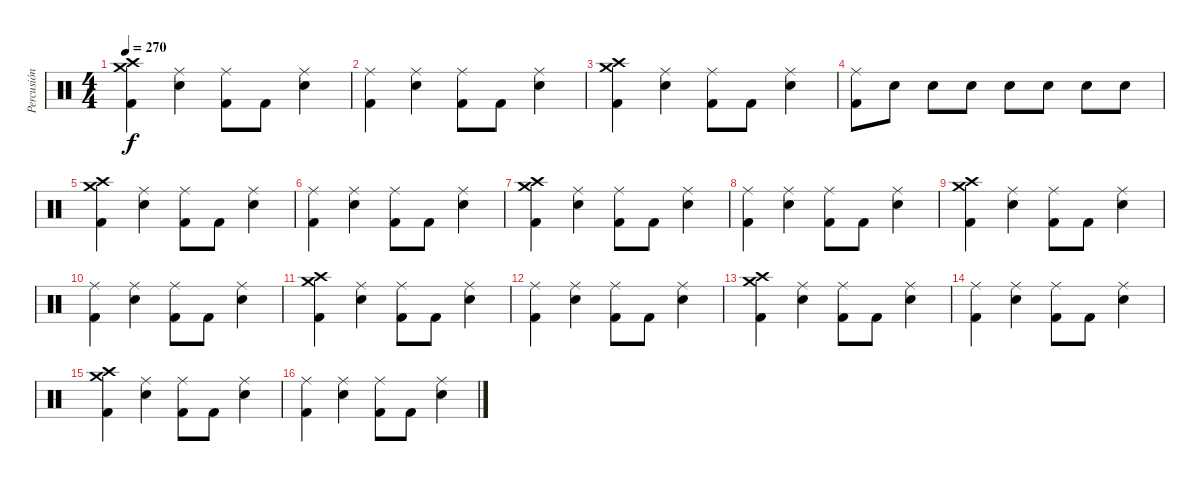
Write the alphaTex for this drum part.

\track ("Percusión" "Percusión") {instrument percussion}
\staff {score}
\articulation defaults
\ts (4 4)
\tempo 270
\clef neutral
\ks c
("Crash high (hit)" "Crash medium (hit)" "Kick (hit) 2").4{dy f} ("Ride (middle)" "Electric Snare (hit)").4 ("Ride (middle)" "Kick (hit) 2").8 "Kick (hit) 2".8 ("Ride (middle)" "Electric Snare (hit)").4 |
("Ride (middle)" "Kick (hit) 2").4 ("Ride (middle)" "Electric Snare (hit)").4 ("Ride (middle)" "Kick (hit) 2").8 "Kick (hit) 2".8 ("Ride (middle)" "Electric Snare (hit)").4 |
("Crash high (hit)" "Crash medium (hit)" "Kick (hit) 2").4 ("Ride (middle)" "Electric Snare (hit)").4 ("Ride (middle)" "Kick (hit) 2").8 "Kick (hit) 2".8 ("Ride (middle)" "Electric Snare (hit)").4 |
("Ride (middle)" "Kick (hit) 2").8 "Electric Snare (hit)".8 "Electric Snare (hit)".8 "Electric Snare (hit)".8 "Electric Snare (hit)".8 "Electric Snare (hit)".8 "Electric Snare (hit)".8 "Electric Snare (hit)".8 |
("Crash high (hit)" "Crash medium (hit)" "Kick (hit) 2").4 ("Ride (middle)" "Electric Snare (hit)").4 ("Ride (middle)" "Kick (hit) 2").8 "Kick (hit) 2".8 ("Ride (middle)" "Electric Snare (hit)").4 |
("Ride (middle)" "Kick (hit) 2").4 ("Ride (middle)" "Electric Snare (hit)").4 ("Ride (middle)" "Kick (hit) 2").8 "Kick (hit) 2".8 ("Ride (middle)" "Electric Snare (hit)").4 |
("Crash high (hit)" "Crash medium (hit)" "Kick (hit) 2").4 ("Ride (middle)" "Electric Snare (hit)").4 ("Ride (middle)" "Kick (hit) 2").8 "Kick (hit) 2".8 ("Ride (middle)" "Electric Snare (hit)").4 |
("Ride (middle)" "Kick (hit) 2").4 ("Ride (middle)" "Electric Snare (hit)").4 ("Ride (middle)" "Kick (hit) 2").8 "Kick (hit) 2".8 ("Ride (middle)" "Electric Snare (hit)").4 |
("Crash high (hit)" "Crash medium (hit)" "Kick (hit) 2").4 ("Ride (middle)" "Electric Snare (hit)").4 ("Ride (middle)" "Kick (hit) 2").8 "Kick (hit) 2".8 ("Ride (middle)" "Electric Snare (hit)").4 |
("Ride (middle)" "Kick (hit) 2").4 ("Ride (middle)" "Electric Snare (hit)").4 ("Ride (middle)" "Kick (hit) 2").8 "Kick (hit) 2".8 ("Ride (middle)" "Electric Snare (hit)").4 |
("Crash high (hit)" "Crash medium (hit)" "Kick (hit) 2").4 ("Ride (middle)" "Electric Snare (hit)").4 ("Ride (middle)" "Kick (hit) 2").8 "Kick (hit) 2".8 ("Ride (middle)" "Electric Snare (hit)").4 |
("Ride (middle)" "Kick (hit) 2").4 ("Ride (middle)" "Electric Snare (hit)").4 ("Ride (middle)" "Kick (hit) 2").8 "Kick (hit) 2".8 ("Ride (middle)" "Electric Snare (hit)").4 |
("Crash high (hit)" "Crash medium (hit)" "Kick (hit) 2").4 ("Ride (middle)" "Electric Snare (hit)").4 ("Ride (middle)" "Kick (hit) 2").8 "Kick (hit) 2".8 ("Ride (middle)" "Electric Snare (hit)").4 |
("Ride (middle)" "Kick (hit) 2").4 ("Ride (middle)" "Electric Snare (hit)").4 ("Ride (middle)" "Kick (hit) 2").8 "Kick (hit) 2".8 ("Ride (middle)" "Electric Snare (hit)").4 |
("Crash high (hit)" "Crash medium (hit)" "Kick (hit) 2").4 ("Ride (middle)" "Electric Snare (hit)").4 ("Ride (middle)" "Kick (hit) 2").8 "Kick (hit) 2".8 ("Ride (middle)" "Electric Snare (hit)").4 |
("Ride (middle)" "Kick (hit) 2").4 ("Ride (middle)" "Electric Snare (hit)").4 ("Ride (middle)" "Kick (hit) 2").8 "Kick (hit) 2".8 ("Ride (middle)" "Electric Snare (hit)").4
